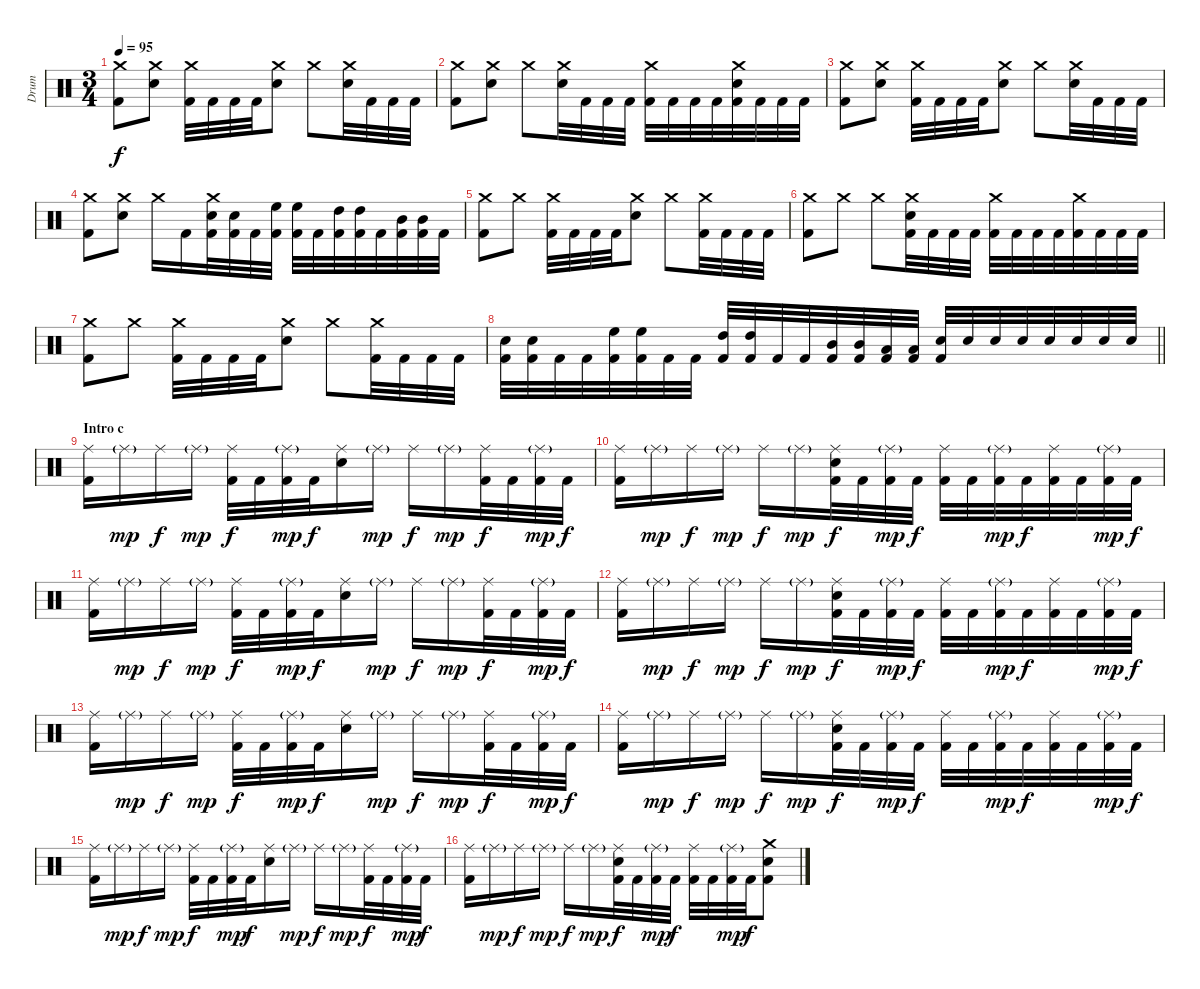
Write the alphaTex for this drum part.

\track ("Drum" "Drum") {instrument percussion}
\staff {score}
\articulation defaults
\ts (3 4)
\tempo 95
\clef neutral
\ks c
("Crash medium (hit)" "Kick (hit) 2").8{dy f} ("Crash medium (hit)" "Electric Snare (hit)").8 ("Crash medium (hit)" "Kick (hit) 2").32 "Kick (hit) 2".32 "Kick (hit) 2".32 "Kick (hit) 2".32 ("Crash medium (hit)" "Electric Snare (hit)").8 "Crash medium (hit)".8 ("Crash medium (hit)" "Electric Snare (hit)").32 "Kick (hit) 2".32 "Kick (hit) 2".32 "Kick (hit) 2".32 |
("Crash medium (hit)" "Kick (hit) 2").8 ("Crash medium (hit)" "Electric Snare (hit)").8 "Crash medium (hit)".8 ("Crash medium (hit)" "Electric Snare (hit)").32 "Kick (hit) 2".32 "Kick (hit) 2".32 "Kick (hit) 2".32 ("Crash medium (hit)" "Kick (hit) 2").32 "Kick (hit) 2".32 "Kick (hit) 2".32 "Kick (hit) 2".32 ("Crash medium (hit)" "Electric Snare (hit)" "Kick (hit) 2").32 "Kick (hit) 2".32 "Kick (hit) 2".32 "Kick (hit) 2".32 |
("Crash medium (hit)" "Kick (hit) 2").8 ("Crash medium (hit)" "Electric Snare (hit)").8 ("Crash medium (hit)" "Kick (hit) 2").32 "Kick (hit) 2".32 "Kick (hit) 2".32 "Kick (hit) 2".32 ("Crash medium (hit)" "Electric Snare (hit)").8 "Crash medium (hit)".8 ("Crash medium (hit)" "Electric Snare (hit)").32 "Kick (hit) 2".32 "Kick (hit) 2".32 "Kick (hit) 2".32 |
("Crash medium (hit)" "Kick (hit) 2").8 ("Crash medium (hit)" "Electric Snare (hit)").8 "Crash medium (hit)".16 "Kick (hit) 2".16 ("Crash medium (hit)" "Electric Snare (hit)" "Kick (hit) 2").32 ("Electric Snare (hit)" "Kick (hit) 2").32 "Kick (hit) 2".32 ("High Floor Tom (hit)" "Kick (hit) 2").32 ("High Floor Tom (hit)" "Kick (hit) 2").32 "Kick (hit) 2".32 ("High Tom (hit)" "Kick (hit) 2").32 ("High Tom (hit)" "Kick (hit) 2").32 "Kick (hit) 2".32 ("Mid Tom (hit)" "Kick (hit) 2").32 ("Mid Tom (hit)" "Kick (hit) 2").32 "Kick (hit) 2".32 |
("Crash medium (hit)" "Kick (hit) 2").8 "Crash medium (hit)".8 ("Crash medium (hit)" "Kick (hit) 2").32 "Kick (hit) 2".32 "Kick (hit) 2".32 "Kick (hit) 2".32 ("Crash medium (hit)" "Electric Snare (hit)").8 "Crash medium (hit)".8 ("Crash medium (hit)" "Kick (hit) 2").32 "Kick (hit) 2".32 "Kick (hit) 2".32 "Kick (hit) 2".32 |
("Crash medium (hit)" "Kick (hit) 2").8 "Crash medium (hit)".8 "Crash medium (hit)".8 ("Crash medium (hit)" "Electric Snare (hit)" "Kick (hit) 2").32 "Kick (hit) 2".32 "Kick (hit) 2".32 "Kick (hit) 2".32 ("Crash medium (hit)" "Kick (hit) 2").32 "Kick (hit) 2".32 "Kick (hit) 2".32 "Kick (hit) 2".32 ("Crash medium (hit)" "Kick (hit) 2").32 "Kick (hit) 2".32 "Kick (hit) 2".32 "Kick (hit) 2".32 |
("Crash medium (hit)" "Kick (hit) 2").8 "Crash medium (hit)".8 ("Crash medium (hit)" "Kick (hit) 2").32 "Kick (hit) 2".32 "Kick (hit) 2".32 "Kick (hit) 2".32 ("Crash medium (hit)" "Electric Snare (hit)").8 "Crash medium (hit)".8 ("Crash medium (hit)" "Kick (hit) 2").32 "Kick (hit) 2".32 "Kick (hit) 2".32 "Kick (hit) 2".32 |
\barLineRight lightlight
("Electric Snare (hit)" "Kick (hit) 2").32 ("Electric Snare (hit)" "Kick (hit) 2").32 "Kick (hit) 2".32 "Kick (hit) 2".32 ("High Floor Tom (hit)" "Kick (hit) 2").32 ("High Floor Tom (hit)" "Kick (hit) 2").32 "Kick (hit) 2".32 "Kick (hit) 2".32 ("High Tom (hit)" "Kick (hit) 2").32 ("High Tom (hit)" "Kick (hit) 2").32 "Kick (hit) 2".32 "Kick (hit) 2".32 ("Mid Tom (hit)" "Kick (hit) 2").32 ("Mid Tom (hit)" "Kick (hit) 2").32 ("Low Tom (hit)" "Kick (hit) 2").32 ("Low Tom (hit)" "Kick (hit) 2").32 ("Electric Snare (hit)" "Kick (hit) 2").32 "Electric Snare (hit)".32 "Electric Snare (hit)".32 "Electric Snare (hit)".32 "Electric Snare (hit)".32 "Electric Snare (hit)".32 "Electric Snare (hit)".32 "Electric Snare (hit)".32 |
\section ("" "Intro c")
("Ride (middle)" "Kick (hit) 2").16 "Ride (middle)"{g}.16{dy mp} "Ride (middle)".16{dy f} "Ride (middle)"{g}.16{dy mp} ("Ride (middle)" "Kick (hit) 2").32{dy f} "Kick (hit) 2".32 ("Ride (middle)"{g} "Kick (hit) 2").32{dy mp} "Kick (hit) 2".32{dy f} ("Ride (middle)" "Electric Snare (hit)").16 "Ride (middle)"{g}.16{dy mp} "Ride (middle)".16{dy f} "Ride (middle)"{g}.16{dy mp} ("Ride (middle)" "Kick (hit) 2").32{dy f} "Kick (hit) 2".32 ("Ride (middle)"{g} "Kick (hit) 2").32{dy mp} "Kick (hit) 2".32{dy f} |
("Ride (middle)" "Kick (hit) 2").16 "Ride (middle)"{g}.16{dy mp} "Ride (middle)".16{dy f} "Ride (middle)"{g}.16{dy mp} "Ride (middle)".16{dy f} "Ride (middle)"{g}.16{dy mp} ("Ride (middle)" "Electric Snare (hit)" "Kick (hit) 2").32{dy f} "Kick (hit) 2".32 ("Ride (middle)"{g} "Kick (hit) 2").32{dy mp} "Kick (hit) 2".32{dy f} ("Ride (middle)" "Kick (hit) 2").32 "Kick (hit) 2".32 ("Ride (middle)"{g} "Kick (hit) 2").32{dy mp} "Kick (hit) 2".32{dy f} ("Ride (middle)" "Kick (hit) 2").32 "Kick (hit) 2".32 ("Ride (middle)"{g} "Kick (hit) 2").32{dy mp} "Kick (hit) 2".32{dy f} |
("Ride (middle)" "Kick (hit) 2").16 "Ride (middle)"{g}.16{dy mp} "Ride (middle)".16{dy f} "Ride (middle)"{g}.16{dy mp} ("Ride (middle)" "Kick (hit) 2").32{dy f} "Kick (hit) 2".32 ("Ride (middle)"{g} "Kick (hit) 2").32{dy mp} "Kick (hit) 2".32{dy f} ("Ride (middle)" "Electric Snare (hit)").16 "Ride (middle)"{g}.16{dy mp} "Ride (middle)".16{dy f} "Ride (middle)"{g}.16{dy mp} ("Ride (middle)" "Kick (hit) 2").32{dy f} "Kick (hit) 2".32 ("Ride (middle)"{g} "Kick (hit) 2").32{dy mp} "Kick (hit) 2".32{dy f} |
("Ride (middle)" "Kick (hit) 2").16 "Ride (middle)"{g}.16{dy mp} "Ride (middle)".16{dy f} "Ride (middle)"{g}.16{dy mp} "Ride (middle)".16{dy f} "Ride (middle)"{g}.16{dy mp} ("Ride (middle)" "Electric Snare (hit)" "Kick (hit) 2").32{dy f} "Kick (hit) 2".32 ("Ride (middle)"{g} "Kick (hit) 2").32{dy mp} "Kick (hit) 2".32{dy f} ("Ride (middle)" "Kick (hit) 2").32 "Kick (hit) 2".32 ("Ride (middle)"{g} "Kick (hit) 2").32{dy mp} "Kick (hit) 2".32{dy f} ("Ride (middle)" "Kick (hit) 2").32 "Kick (hit) 2".32 ("Ride (middle)"{g} "Kick (hit) 2").32{dy mp} "Kick (hit) 2".32{dy f} |
("Ride (middle)" "Kick (hit) 2").16 "Ride (middle)"{g}.16{dy mp} "Ride (middle)".16{dy f} "Ride (middle)"{g}.16{dy mp} ("Ride (middle)" "Kick (hit) 2").32{dy f} "Kick (hit) 2".32 ("Ride (middle)"{g} "Kick (hit) 2").32{dy mp} "Kick (hit) 2".32{dy f} ("Ride (middle)" "Electric Snare (hit)").16 "Ride (middle)"{g}.16{dy mp} "Ride (middle)".16{dy f} "Ride (middle)"{g}.16{dy mp} ("Ride (middle)" "Kick (hit) 2").32{dy f} "Kick (hit) 2".32 ("Ride (middle)"{g} "Kick (hit) 2").32{dy mp} "Kick (hit) 2".32{dy f} |
("Ride (middle)" "Kick (hit) 2").16 "Ride (middle)"{g}.16{dy mp} "Ride (middle)".16{dy f} "Ride (middle)"{g}.16{dy mp} "Ride (middle)".16{dy f} "Ride (middle)"{g}.16{dy mp} ("Ride (middle)" "Electric Snare (hit)" "Kick (hit) 2").32{dy f} "Kick (hit) 2".32 ("Ride (middle)"{g} "Kick (hit) 2").32{dy mp} "Kick (hit) 2".32{dy f} ("Ride (middle)" "Kick (hit) 2").32 "Kick (hit) 2".32 ("Ride (middle)"{g} "Kick (hit) 2").32{dy mp} "Kick (hit) 2".32{dy f} ("Ride (middle)" "Kick (hit) 2").32 "Kick (hit) 2".32 ("Ride (middle)"{g} "Kick (hit) 2").32{dy mp} "Kick (hit) 2".32{dy f} |
("Ride (middle)" "Kick (hit) 2").16 "Ride (middle)"{g}.16{dy mp} "Ride (middle)".16{dy f} "Ride (middle)"{g}.16{dy mp} ("Ride (middle)" "Kick (hit) 2").32{dy f} "Kick (hit) 2".32 ("Ride (middle)"{g} "Kick (hit) 2").32{dy mp} "Kick (hit) 2".32{dy f} ("Ride (middle)" "Electric Snare (hit)").16 "Ride (middle)"{g}.16{dy mp} "Ride (middle)".16{dy f} "Ride (middle)"{g}.16{dy mp} ("Ride (middle)" "Kick (hit) 2").32{dy f} "Kick (hit) 2".32 ("Ride (middle)"{g} "Kick (hit) 2").32{dy mp} "Kick (hit) 2".32{dy f} |
("Ride (middle)" "Kick (hit) 2").16 "Ride (middle)"{g}.16{dy mp} "Ride (middle)".16{dy f} "Ride (middle)"{g}.16{dy mp} "Ride (middle)".16{dy f} "Ride (middle)"{g}.16{dy mp} ("Ride (middle)" "Electric Snare (hit)" "Kick (hit) 2").32{dy f} "Kick (hit) 2".32 ("Ride (middle)"{g} "Kick (hit) 2").32{dy mp} "Kick (hit) 2".32{dy f} ("Ride (middle)" "Kick (hit) 2").32 "Kick (hit) 2".32 ("Ride (middle)"{g} "Kick (hit) 2").32{dy mp} "Kick (hit) 2".32{dy f} ("Crash medium (hit)" "Electric Snare (hit)" "Kick (hit) 2").8
